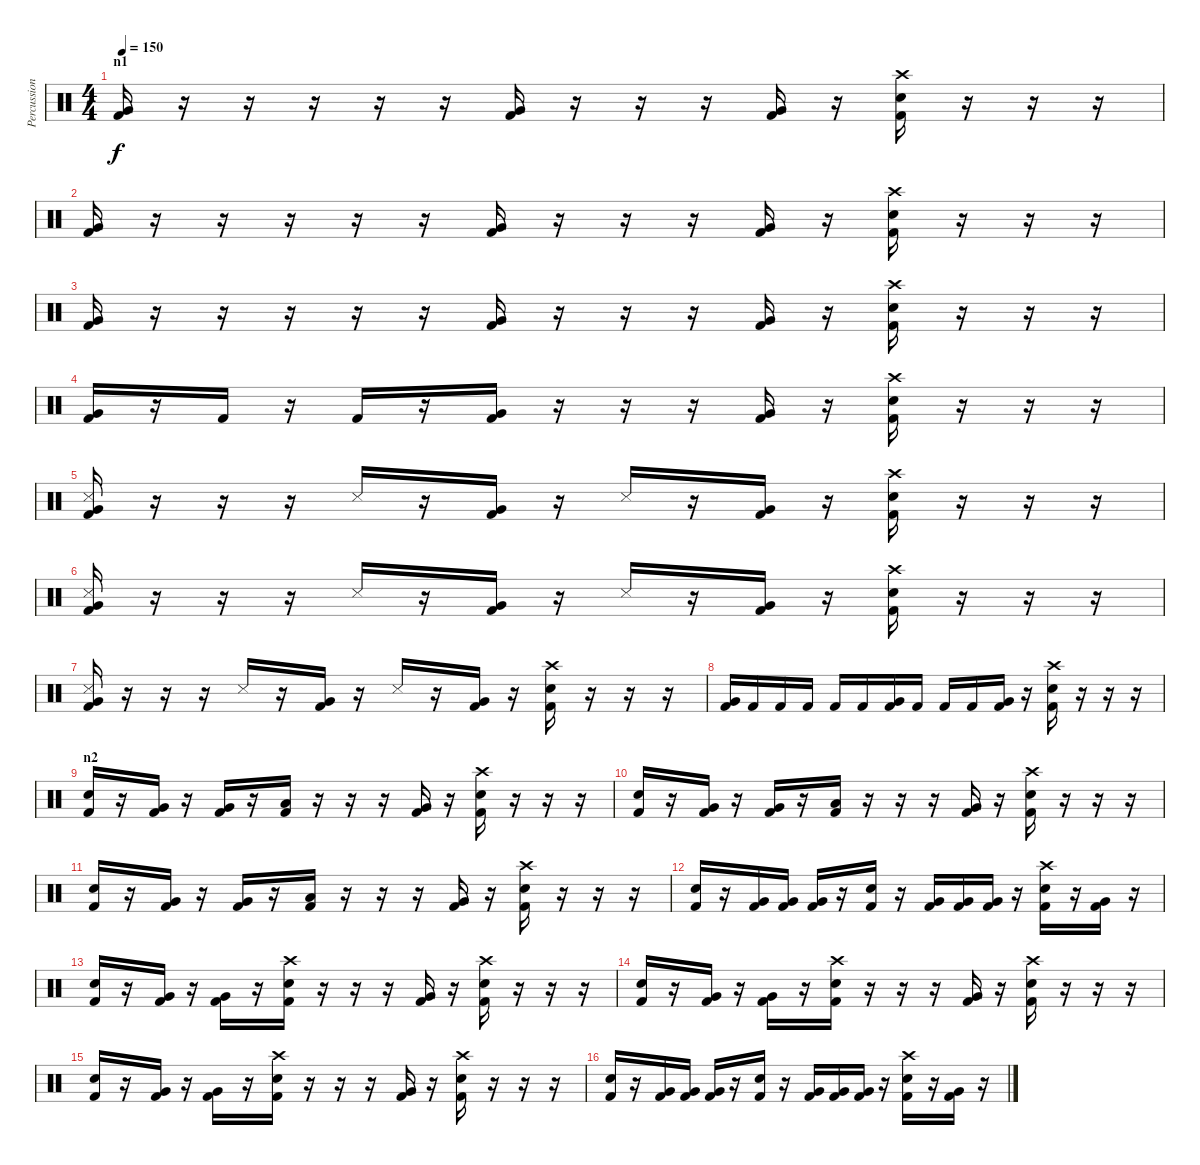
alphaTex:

\track ("Percussion" "Percussion") {instrument percussion}
\staff {score}
\articulation defaults
\ts (4 4)
\section ("" "n1")
\tempo 150
\clef neutral
\ks c
("Kick (hit) 2" "Very Low Tom (hit)").16{dy f} r.16 r.16 r.16 r.16 r.16 ("Kick (hit) 2" "Very Low Tom (hit)").16 r.16 r.16 r.16 ("Kick (hit) 2" "Very Low Tom (hit)").16 r.16 ("Kick (hit) 2" "Electric Snare (hit)" "Crash high (hit)").16 r.16 r.16 r.16 |
("Kick (hit) 2" "Very Low Tom (hit)").16 r.16 r.16 r.16 r.16 r.16 ("Kick (hit) 2" "Very Low Tom (hit)").16 r.16 r.16 r.16 ("Kick (hit) 2" "Very Low Tom (hit)").16 r.16 ("Kick (hit) 2" "Electric Snare (hit)" "Crash high (hit)").16 r.16 r.16 r.16 |
("Kick (hit) 2" "Very Low Tom (hit)").16 r.16 r.16 r.16 r.16 r.16 ("Kick (hit) 2" "Very Low Tom (hit)").16 r.16 r.16 r.16 ("Kick (hit) 2" "Very Low Tom (hit)").16 r.16 ("Kick (hit) 2" "Electric Snare (hit)" "Crash high (hit)").16 r.16 r.16 r.16 |
("Kick (hit) 2" "Very Low Tom (hit)").16 r.16 "Kick (hit) 2".16 r.16 "Kick (hit) 2".16 r.16 ("Kick (hit) 2" "Very Low Tom (hit)").16 r.16 r.16 r.16 ("Kick (hit) 2" "Very Low Tom (hit)").16 r.16 ("Kick (hit) 2" "Electric Snare (hit)" "Crash high (hit)").16 r.16 r.16 r.16 |
("Kick (hit) 2" "Very Low Tom (hit)" "Snare (side stick) 3").16 r.16 r.16 r.16 "Snare (side stick) 3".16 r.16 ("Kick (hit) 2" "Very Low Tom (hit)").16 r.16 "Snare (side stick) 3".16 r.16 ("Kick (hit) 2" "Very Low Tom (hit)").16 r.16 ("Kick (hit) 2" "Electric Snare (hit)" "Crash high (hit)").16 r.16 r.16 r.16 |
("Kick (hit) 2" "Very Low Tom (hit)" "Snare (side stick) 3").16 r.16 r.16 r.16 "Snare (side stick) 3".16 r.16 ("Kick (hit) 2" "Very Low Tom (hit)").16 r.16 "Snare (side stick) 3".16 r.16 ("Kick (hit) 2" "Very Low Tom (hit)").16 r.16 ("Kick (hit) 2" "Electric Snare (hit)" "Crash high (hit)").16 r.16 r.16 r.16 |
("Kick (hit) 2" "Very Low Tom (hit)" "Snare (side stick) 3").16 r.16 r.16 r.16 "Snare (side stick) 3".16 r.16 ("Kick (hit) 2" "Very Low Tom (hit)").16 r.16 "Snare (side stick) 3".16 r.16 ("Kick (hit) 2" "Very Low Tom (hit)").16 r.16 ("Kick (hit) 2" "Electric Snare (hit)" "Crash high (hit)").16 r.16 r.16 r.16 |
("Kick (hit) 2" "Very Low Tom (hit)").16 "Kick (hit) 2".16 "Kick (hit) 2".16 "Kick (hit) 2".16 "Kick (hit) 2".16 "Kick (hit) 2".16 ("Kick (hit) 2" "Very Low Tom (hit)").16 "Kick (hit) 2".16 "Kick (hit) 2".16 "Kick (hit) 2".16 ("Kick (hit) 2" "Very Low Tom (hit)").16 r.16 ("Kick (hit) 2" "Electric Snare (hit)" "Crash high (hit)").16 r.16 r.16 r.16 |
\section ("" "n2")
("Kick (hit) 2" "Electric Snare (hit)").16 r.16 ("Kick (hit) 2" "Very Low Tom (hit)").16 r.16 ("Kick (hit) 2" "Very Low Tom (hit)").16 r.16 ("Kick (hit) 2" "Low Floor Tom (hit)").16 r.16 r.16 r.16 ("Kick (hit) 2" "Very Low Tom (hit)").16 r.16 ("Kick (hit) 2" "Electric Snare (hit)" "Crash high (hit)").16 r.16 r.16 r.16 |
("Kick (hit) 2" "Electric Snare (hit)").16 r.16 ("Kick (hit) 2" "Very Low Tom (hit)").16 r.16 ("Kick (hit) 2" "Very Low Tom (hit)").16 r.16 ("Kick (hit) 2" "Low Floor Tom (hit)").16 r.16 r.16 r.16 ("Kick (hit) 2" "Very Low Tom (hit)").16 r.16 ("Kick (hit) 2" "Electric Snare (hit)" "Crash high (hit)").16 r.16 r.16 r.16 |
("Kick (hit) 2" "Electric Snare (hit)").16 r.16 ("Kick (hit) 2" "Very Low Tom (hit)").16 r.16 ("Kick (hit) 2" "Very Low Tom (hit)").16 r.16 ("Kick (hit) 2" "Low Floor Tom (hit)").16 r.16 r.16 r.16 ("Kick (hit) 2" "Very Low Tom (hit)").16 r.16 ("Kick (hit) 2" "Electric Snare (hit)" "Crash high (hit)").16 r.16 r.16 r.16 |
("Kick (hit) 2" "Electric Snare (hit)").16 r.16 ("Kick (hit) 2" "Very Low Tom (hit)").16 ("Kick (hit) 2" "Very Low Tom (hit)").16 ("Kick (hit) 2" "Very Low Tom (hit)").16 r.16 ("Kick (hit) 2" "Electric Snare (hit)").16 r.16 ("Kick (hit) 2" "Very Low Tom (hit)").16 ("Kick (hit) 2" "Very Low Tom (hit)").16 ("Kick (hit) 2" "Very Low Tom (hit)").16 r.16 ("Kick (hit) 2" "Electric Snare (hit)" "Crash high (hit)").16 r.16 ("Kick (hit) 2" "Very Low Tom (hit)").16 r.16 |
("Kick (hit) 2" "Electric Snare (hit)").16 r.16 ("Kick (hit) 2" "Very Low Tom (hit)").16 r.16 ("Kick (hit) 2" "Very Low Tom (hit)").16 r.16 ("Kick (hit) 2" "Electric Snare (hit)" "Crash high (hit)").16 r.16 r.16 r.16 ("Kick (hit) 2" "Very Low Tom (hit)").16 r.16 ("Kick (hit) 2" "Electric Snare (hit)" "Crash high (hit)").16 r.16 r.16 r.16 |
("Kick (hit) 2" "Electric Snare (hit)").16 r.16 ("Kick (hit) 2" "Very Low Tom (hit)").16 r.16 ("Kick (hit) 2" "Very Low Tom (hit)").16 r.16 ("Kick (hit) 2" "Electric Snare (hit)" "Crash high (hit)").16 r.16 r.16 r.16 ("Kick (hit) 2" "Very Low Tom (hit)").16 r.16 ("Kick (hit) 2" "Electric Snare (hit)" "Crash high (hit)").16 r.16 r.16 r.16 |
("Kick (hit) 2" "Electric Snare (hit)").16 r.16 ("Kick (hit) 2" "Very Low Tom (hit)").16 r.16 ("Kick (hit) 2" "Very Low Tom (hit)").16 r.16 ("Kick (hit) 2" "Electric Snare (hit)" "Crash high (hit)").16 r.16 r.16 r.16 ("Kick (hit) 2" "Very Low Tom (hit)").16 r.16 ("Kick (hit) 2" "Electric Snare (hit)" "Crash high (hit)").16 r.16 r.16 r.16 |
("Kick (hit) 2" "Electric Snare (hit)").16 r.16 ("Kick (hit) 2" "Very Low Tom (hit)").16 ("Kick (hit) 2" "Very Low Tom (hit)").16 ("Kick (hit) 2" "Very Low Tom (hit)").16 r.16 ("Kick (hit) 2" "Electric Snare (hit)").16 r.16 ("Kick (hit) 2" "Very Low Tom (hit)").16 ("Kick (hit) 2" "Very Low Tom (hit)").16 ("Kick (hit) 2" "Very Low Tom (hit)").16 r.16 ("Kick (hit) 2" "Electric Snare (hit)" "Crash high (hit)").16 r.16 ("Kick (hit) 2" "Very Low Tom (hit)").16 r.16
